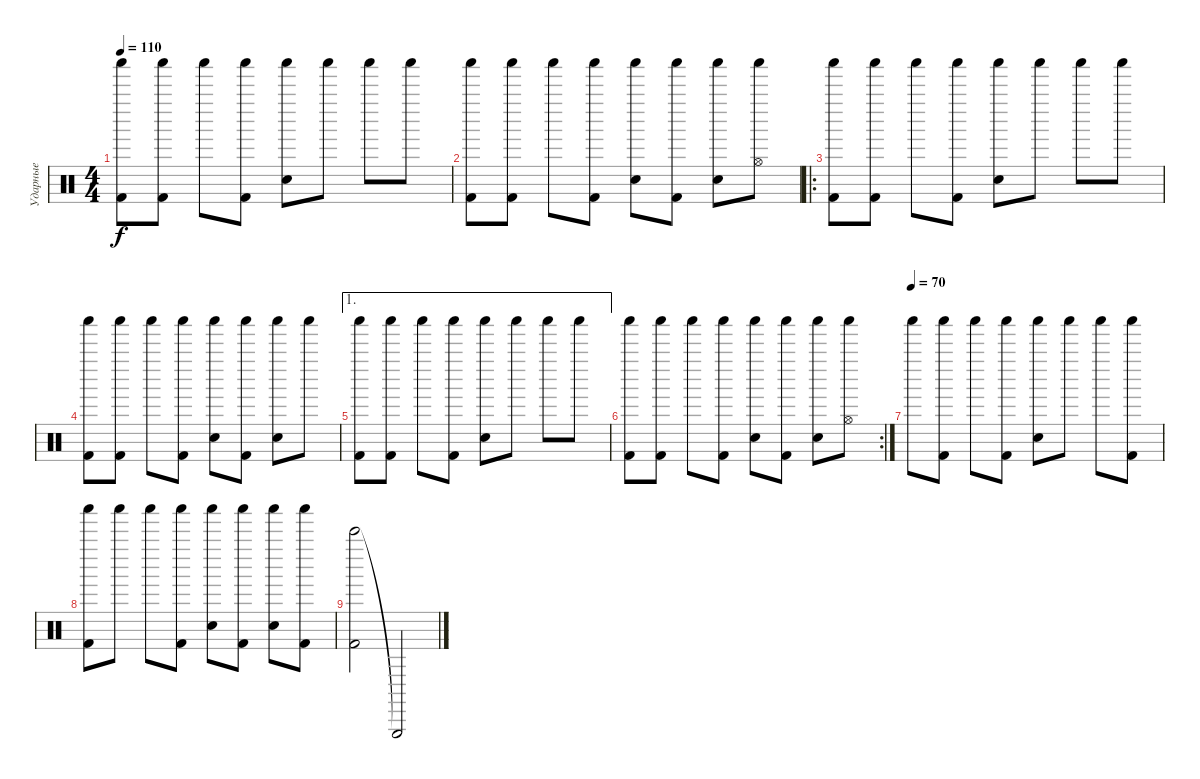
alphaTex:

\track ("Ударные" "Ударные") {instrument percussion}
\staff {score}
\articulation defaults
\ts (4 4)
\tempo 110
\clef neutral
\ks c
("Shaker (hit)" "Kick (hit) 2").8{dy f} ("Shaker (hit)" "Kick (hit) 2").8 "Shaker (hit)".8 ("Shaker (hit)" "Kick (hit) 2").8 ("Shaker (hit)" "Snare (hit) 2").8 "Shaker (hit)".8 "Shaker (hit)".8 "Shaker (hit)".8 |
("Shaker (hit)" "Kick (hit) 2").8 ("Shaker (hit)" "Kick (hit) 2").8 "Shaker (hit)".8 ("Shaker (hit)" "Kick (hit) 2").8 ("Shaker (hit)" "Snare (hit) 2").8 ("Shaker (hit)" "Kick (hit) 2").8 ("Shaker (hit)" "Snare (hit) 2").8 ("Shaker (hit)" "Hi-Hat (open)").8 |
\ro
("Shaker (hit)" "Kick (hit) 2").8 ("Shaker (hit)" "Kick (hit) 2").8 "Shaker (hit)".8 ("Shaker (hit)" "Kick (hit) 2").8 ("Shaker (hit)" "Snare (hit) 2").8 "Shaker (hit)".8 "Shaker (hit)".8 "Shaker (hit)".8 |
("Shaker (hit)" "Kick (hit) 2").8 ("Shaker (hit)" "Kick (hit) 2").8 "Shaker (hit)".8 ("Shaker (hit)" "Kick (hit) 2").8 ("Shaker (hit)" "Snare (hit) 2").8 ("Shaker (hit)" "Kick (hit) 2").8 ("Shaker (hit)" "Snare (hit) 2").8 "Shaker (hit)".8 |
\ae 1
("Shaker (hit)" "Kick (hit) 2").8 ("Shaker (hit)" "Kick (hit) 2").8 "Shaker (hit)".8 ("Shaker (hit)" "Kick (hit) 2").8 ("Shaker (hit)" "Snare (hit) 2").8 "Shaker (hit)".8 "Shaker (hit)".8 "Shaker (hit)".8 |
\rc 2
("Shaker (hit)" "Kick (hit) 2").8 ("Shaker (hit)" "Kick (hit) 2").8 "Shaker (hit)".8 ("Shaker (hit)" "Kick (hit) 2").8 ("Shaker (hit)" "Snare (hit) 2").8 ("Shaker (hit)" "Kick (hit) 2").8 ("Shaker (hit)" "Snare (hit) 2").8 ("Shaker (hit)" "Hi-Hat (open)").8 |
\tempo (70)
"Shaker (hit)".8 ("Shaker (hit)" "Kick (hit) 2").8 "Shaker (hit)".8 ("Shaker (hit)" "Kick (hit) 2").8 ("Shaker (hit)" "Snare (hit) 2").8 "Shaker (hit)".8 "Shaker (hit)".8 ("Shaker (hit)" "Kick (hit) 2").8 |
("Shaker (hit)" "Kick (hit) 2").8 "Shaker (hit)".8 "Shaker (hit)".8 ("Shaker (hit)" "Kick (hit) 2").8 ("Shaker (hit)" "Snare (hit) 2").8 ("Shaker (hit)" "Kick (hit) 2").8 ("Shaker (hit)" "Snare (hit) 2").8 ("Shaker (hit)" "Kick (hit) 2").8 |
("Bell Tree (hit)" "Kick (hit) 2").2 "Triangle (hit)"{t}.2
